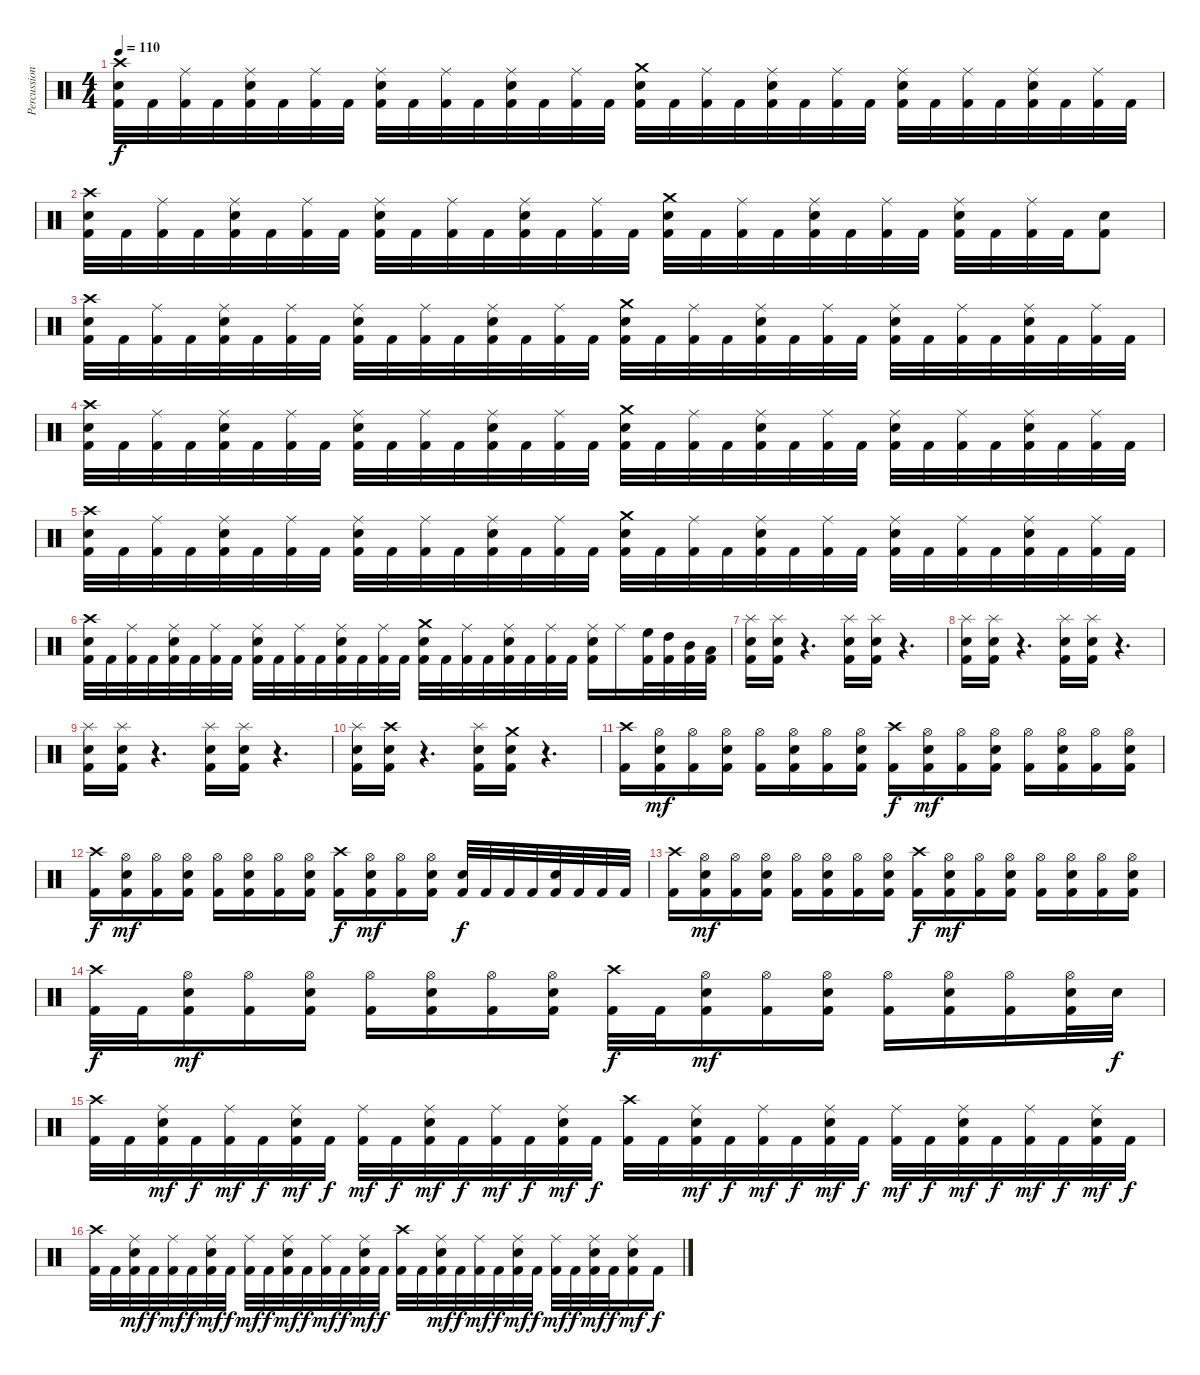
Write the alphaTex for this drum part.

\track ("Percussion" "Percussion") {instrument percussion}
\staff {score}
\articulation defaults
\ts (4 4)
\tempo 110
\clef neutral
\ks c
("Crash high (hit)" "Snare (hit) 2" "Kick (hit) 2").32{dy f} "Kick (hit) 2".32 ("Ride (middle)" "Kick (hit) 2").32 "Kick (hit) 2".32 ("Ride (middle)" "Snare (hit) 2" "Kick (hit) 2").32 "Kick (hit) 2".32 ("Ride (middle)" "Kick (hit) 2").32 "Kick (hit) 2".32 ("Ride (middle)" "Snare (hit) 2" "Kick (hit) 2").32 "Kick (hit) 2".32 ("Ride (middle)" "Kick (hit) 2").32 "Kick (hit) 2".32 ("Ride (middle)" "Snare (hit) 2" "Kick (hit) 2").32 "Kick (hit) 2".32 ("Ride (middle)" "Kick (hit) 2").32 "Kick (hit) 2".32 ("Crash medium (hit)" "Snare (hit) 2" "Kick (hit) 2").32 "Kick (hit) 2".32 ("Ride (middle)" "Kick (hit) 2").32 "Kick (hit) 2".32 ("Ride (middle)" "Snare (hit) 2" "Kick (hit) 2").32 "Kick (hit) 2".32 ("Ride (middle)" "Kick (hit) 2").32 "Kick (hit) 2".32 ("Ride (middle)" "Snare (hit) 2" "Kick (hit) 2").32 "Kick (hit) 2".32 ("Ride (middle)" "Kick (hit) 2").32 "Kick (hit) 2".32 ("Ride (middle)" "Snare (hit) 2" "Kick (hit) 2").32 "Kick (hit) 2".32 ("Ride (middle)" "Kick (hit) 2").32 "Kick (hit) 2".32 |
("Crash high (hit)" "Snare (hit) 2" "Kick (hit) 2").32 "Kick (hit) 2".32 ("Ride (middle)" "Kick (hit) 2").32 "Kick (hit) 2".32 ("Ride (middle)" "Snare (hit) 2" "Kick (hit) 2").32 "Kick (hit) 2".32 ("Ride (middle)" "Kick (hit) 2").32 "Kick (hit) 2".32 ("Ride (middle)" "Snare (hit) 2" "Kick (hit) 2").32 "Kick (hit) 2".32 ("Ride (middle)" "Kick (hit) 2").32 "Kick (hit) 2".32 ("Ride (middle)" "Snare (hit) 2" "Kick (hit) 2").32 "Kick (hit) 2".32 ("Ride (middle)" "Kick (hit) 2").32 "Kick (hit) 2".32 ("Crash medium (hit)" "Snare (hit) 2" "Kick (hit) 2").32 "Kick (hit) 2".32 ("Ride (middle)" "Kick (hit) 2").32 "Kick (hit) 2".32 ("Ride (middle)" "Snare (hit) 2" "Kick (hit) 2").32 "Kick (hit) 2".32 ("Ride (middle)" "Kick (hit) 2").32 "Kick (hit) 2".32 ("Ride (middle)" "Snare (hit) 2" "Kick (hit) 2").32 "Kick (hit) 2".32 ("Ride (middle)" "Kick (hit) 2").32 "Kick (hit) 2".32 ("Snare (hit) 2" "Kick (hit) 2").8 |
("Crash high (hit)" "Snare (hit) 2" "Kick (hit) 2").32 "Kick (hit) 2".32 ("Ride (middle)" "Kick (hit) 2").32 "Kick (hit) 2".32 ("Ride (middle)" "Snare (hit) 2" "Kick (hit) 2").32 "Kick (hit) 2".32 ("Ride (middle)" "Kick (hit) 2").32 "Kick (hit) 2".32 ("Ride (middle)" "Snare (hit) 2" "Kick (hit) 2").32 "Kick (hit) 2".32 ("Ride (middle)" "Kick (hit) 2").32 "Kick (hit) 2".32 ("Ride (middle)" "Snare (hit) 2" "Kick (hit) 2").32 "Kick (hit) 2".32 ("Ride (middle)" "Kick (hit) 2").32 "Kick (hit) 2".32 ("Crash medium (hit)" "Snare (hit) 2" "Kick (hit) 2").32 "Kick (hit) 2".32 ("Ride (middle)" "Kick (hit) 2").32 "Kick (hit) 2".32 ("Ride (middle)" "Snare (hit) 2" "Kick (hit) 2").32 "Kick (hit) 2".32 ("Ride (middle)" "Kick (hit) 2").32 "Kick (hit) 2".32 ("Ride (middle)" "Snare (hit) 2" "Kick (hit) 2").32 "Kick (hit) 2".32 ("Ride (middle)" "Kick (hit) 2").32 "Kick (hit) 2".32 ("Ride (middle)" "Snare (hit) 2" "Kick (hit) 2").32 "Kick (hit) 2".32 ("Ride (middle)" "Kick (hit) 2").32 "Kick (hit) 2".32 |
("Crash high (hit)" "Snare (hit) 2" "Kick (hit) 2").32 "Kick (hit) 2".32 ("Ride (middle)" "Kick (hit) 2").32 "Kick (hit) 2".32 ("Ride (middle)" "Snare (hit) 2" "Kick (hit) 2").32 "Kick (hit) 2".32 ("Ride (middle)" "Kick (hit) 2").32 "Kick (hit) 2".32 ("Ride (middle)" "Snare (hit) 2" "Kick (hit) 2").32 "Kick (hit) 2".32 ("Ride (middle)" "Kick (hit) 2").32 "Kick (hit) 2".32 ("Ride (middle)" "Snare (hit) 2" "Kick (hit) 2").32 "Kick (hit) 2".32 ("Ride (middle)" "Kick (hit) 2").32 "Kick (hit) 2".32 ("Crash medium (hit)" "Snare (hit) 2" "Kick (hit) 2").32 "Kick (hit) 2".32 ("Ride (middle)" "Kick (hit) 2").32 "Kick (hit) 2".32 ("Ride (middle)" "Snare (hit) 2" "Kick (hit) 2").32 "Kick (hit) 2".32 ("Ride (middle)" "Kick (hit) 2").32 "Kick (hit) 2".32 ("Ride (middle)" "Snare (hit) 2" "Kick (hit) 2").32 "Kick (hit) 2".32 ("Ride (middle)" "Kick (hit) 2").32 "Kick (hit) 2".32 ("Ride (middle)" "Snare (hit) 2" "Kick (hit) 2").32 "Kick (hit) 2".32 ("Ride (middle)" "Kick (hit) 2").32 "Kick (hit) 2".32 |
("Crash high (hit)" "Snare (hit) 2" "Kick (hit) 2").32 "Kick (hit) 2".32 ("Ride (middle)" "Kick (hit) 2").32 "Kick (hit) 2".32 ("Ride (middle)" "Snare (hit) 2" "Kick (hit) 2").32 "Kick (hit) 2".32 ("Ride (middle)" "Kick (hit) 2").32 "Kick (hit) 2".32 ("Ride (middle)" "Snare (hit) 2" "Kick (hit) 2").32 "Kick (hit) 2".32 ("Ride (middle)" "Kick (hit) 2").32 "Kick (hit) 2".32 ("Ride (middle)" "Snare (hit) 2" "Kick (hit) 2").32 "Kick (hit) 2".32 ("Ride (middle)" "Kick (hit) 2").32 "Kick (hit) 2".32 ("Crash medium (hit)" "Snare (hit) 2" "Kick (hit) 2").32 "Kick (hit) 2".32 ("Ride (middle)" "Kick (hit) 2").32 "Kick (hit) 2".32 ("Ride (middle)" "Snare (hit) 2" "Kick (hit) 2").32 "Kick (hit) 2".32 ("Ride (middle)" "Kick (hit) 2").32 "Kick (hit) 2".32 ("Ride (middle)" "Snare (hit) 2" "Kick (hit) 2").32 "Kick (hit) 2".32 ("Ride (middle)" "Kick (hit) 2").32 "Kick (hit) 2".32 ("Ride (middle)" "Snare (hit) 2" "Kick (hit) 2").32 "Kick (hit) 2".32 ("Ride (middle)" "Kick (hit) 2").32 "Kick (hit) 2".32 |
("Crash high (hit)" "Snare (hit) 2" "Kick (hit) 2").32 "Kick (hit) 2".32 ("Ride (middle)" "Kick (hit) 2").32 "Kick (hit) 2".32 ("Ride (middle)" "Snare (hit) 2" "Kick (hit) 2").32 "Kick (hit) 2".32 ("Ride (middle)" "Kick (hit) 2").32 "Kick (hit) 2".32 ("Ride (middle)" "Snare (hit) 2" "Kick (hit) 2").32 "Kick (hit) 2".32 ("Ride (middle)" "Kick (hit) 2").32 "Kick (hit) 2".32 ("Ride (middle)" "Snare (hit) 2" "Kick (hit) 2").32 "Kick (hit) 2".32 ("Ride (middle)" "Kick (hit) 2").32 "Kick (hit) 2".32 ("Crash medium (hit)" "Snare (hit) 2" "Kick (hit) 2").32 "Kick (hit) 2".32 ("Ride (middle)" "Kick (hit) 2").32 "Kick (hit) 2".32 ("Ride (middle)" "Snare (hit) 2" "Kick (hit) 2").32 "Kick (hit) 2".32 ("Ride (middle)" "Kick (hit) 2").32 "Kick (hit) 2".32 ("Ride (middle)" "Snare (hit) 2" "Kick (hit) 2").16 "Ride (middle)".16 ("High Floor Tom (hit)" "Kick (hit) 2").32 ("High Tom (hit)" "Kick (hit) 2").32 ("Mid Tom (hit)" "Kick (hit) 2").32 ("Low Tom (hit)" "Kick (hit) 2").32 |
\section ("" "")
("Splash (hit)" "Snare (hit) 2" "Kick (hit) 2").16 ("Splash (hit)" "Snare (hit) 2" "Kick (hit) 2").16 r.4{d} ("Splash (hit)" "Snare (hit) 2" "Kick (hit) 2").16 ("Splash (hit)" "Snare (hit) 2" "Kick (hit) 2").16 r.4{d} |
("Splash (hit)" "Snare (hit) 2" "Kick (hit) 2").16 ("Splash (hit)" "Snare (hit) 2" "Kick (hit) 2").16 r.4{d} ("Splash (hit)" "Snare (hit) 2" "Kick (hit) 2").16 ("Splash (hit)" "Snare (hit) 2" "Kick (hit) 2").16 r.4{d} |
("Splash (hit)" "Snare (hit) 2" "Kick (hit) 2").16 ("Splash (hit)" "Snare (hit) 2" "Kick (hit) 2").16 r.4{d} ("Splash (hit)" "Snare (hit) 2" "Kick (hit) 2").16 ("Splash (hit)" "Snare (hit) 2" "Kick (hit) 2").16 r.4{d} |
("Splash (hit)" "Snare (hit) 2" "Kick (hit) 2").16 ("Crash high (hit)" "Snare (hit) 2" "Kick (hit) 2").16 r.4{d} ("Splash (hit)" "Snare (hit) 2" "Kick (hit) 2").16 ("Crash medium (hit)" "Snare (hit) 2" "Kick (hit) 2").16 r.4{d} |
\section ("" "")
("Crash high (hit)" "Kick (hit) 2").16 ("Hi-Hat (open)" "Snare (hit) 2" "Kick (hit) 2").16{dy mf} ("Hi-Hat (open)" "Kick (hit) 2").16 ("Hi-Hat (open)" "Snare (hit) 2" "Kick (hit) 2").16 ("Hi-Hat (open)" "Kick (hit) 2").16 ("Hi-Hat (open)" "Snare (hit) 2" "Kick (hit) 2").16 ("Hi-Hat (open)" "Kick (hit) 2").16 ("Hi-Hat (open)" "Snare (hit) 2" "Kick (hit) 2").16 ("Crash high (hit)" "Kick (hit) 2").16{dy f} ("Hi-Hat (open)" "Snare (hit) 2" "Kick (hit) 2").16{dy mf} ("Hi-Hat (open)" "Kick (hit) 2").16 ("Hi-Hat (open)" "Snare (hit) 2" "Kick (hit) 2").16 ("Hi-Hat (open)" "Kick (hit) 2").16 ("Hi-Hat (open)" "Snare (hit) 2" "Kick (hit) 2").16 ("Hi-Hat (open)" "Kick (hit) 2").16 ("Hi-Hat (open)" "Snare (hit) 2" "Kick (hit) 2").16 |
("Crash high (hit)" "Kick (hit) 2").16{dy f} ("Hi-Hat (open)" "Snare (hit) 2" "Kick (hit) 2").16{dy mf} ("Hi-Hat (open)" "Kick (hit) 2").16 ("Hi-Hat (open)" "Snare (hit) 2" "Kick (hit) 2").16 ("Hi-Hat (open)" "Kick (hit) 2").16 ("Hi-Hat (open)" "Snare (hit) 2" "Kick (hit) 2").16 ("Hi-Hat (open)" "Kick (hit) 2").16 ("Hi-Hat (open)" "Snare (hit) 2" "Kick (hit) 2").16 ("Crash high (hit)" "Kick (hit) 2").16{dy f} ("Hi-Hat (open)" "Snare (hit) 2" "Kick (hit) 2").16{dy mf} ("Hi-Hat (open)" "Kick (hit) 2").16 ("Hi-Hat (open)" "Snare (hit) 2" "Kick (hit) 2").16 ("Snare (hit) 2" "Kick (hit) 2").32{dy f} "Kick (hit) 2".32 "Kick (hit) 2".32 "Kick (hit) 2".32 ("Snare (hit) 2" "Kick (hit) 2").32 "Kick (hit) 2".32 "Kick (hit) 2".32 "Kick (hit) 2".32 |
("Crash high (hit)" "Kick (hit) 2").16 ("Hi-Hat (open)" "Snare (hit) 2" "Kick (hit) 2").16{dy mf} ("Hi-Hat (open)" "Kick (hit) 2").16 ("Hi-Hat (open)" "Snare (hit) 2" "Kick (hit) 2").16 ("Hi-Hat (open)" "Kick (hit) 2").16 ("Hi-Hat (open)" "Snare (hit) 2" "Kick (hit) 2").16 ("Hi-Hat (open)" "Kick (hit) 2").16 ("Hi-Hat (open)" "Snare (hit) 2" "Kick (hit) 2").16 ("Crash high (hit)" "Kick (hit) 2").16{dy f} ("Hi-Hat (open)" "Snare (hit) 2" "Kick (hit) 2").16{dy mf} ("Hi-Hat (open)" "Kick (hit) 2").16 ("Hi-Hat (open)" "Snare (hit) 2" "Kick (hit) 2").16 ("Hi-Hat (open)" "Kick (hit) 2").16 ("Hi-Hat (open)" "Snare (hit) 2" "Kick (hit) 2").16 ("Hi-Hat (open)" "Kick (hit) 2").16 ("Hi-Hat (open)" "Snare (hit) 2" "Kick (hit) 2").16 |
("Crash high (hit)" "Kick (hit) 2").32{dy f} "Kick (hit) 2".32 ("Hi-Hat (open)" "Snare (hit) 2" "Kick (hit) 2").16{dy mf} ("Hi-Hat (open)" "Kick (hit) 2").16 ("Hi-Hat (open)" "Snare (hit) 2" "Kick (hit) 2").16 ("Hi-Hat (open)" "Kick (hit) 2").16 ("Hi-Hat (open)" "Snare (hit) 2" "Kick (hit) 2").16 ("Hi-Hat (open)" "Kick (hit) 2").16 ("Hi-Hat (open)" "Snare (hit) 2" "Kick (hit) 2").16 ("Crash high (hit)" "Kick (hit) 2").32{dy f} "Kick (hit) 2".32 ("Hi-Hat (open)" "Snare (hit) 2" "Kick (hit) 2").16{dy mf} ("Hi-Hat (open)" "Kick (hit) 2").16 ("Hi-Hat (open)" "Snare (hit) 2" "Kick (hit) 2").16 ("Hi-Hat (open)" "Kick (hit) 2").16 ("Hi-Hat (open)" "Snare (hit) 2" "Kick (hit) 2").16 ("Hi-Hat (open)" "Kick (hit) 2").16 ("Hi-Hat (open)" "Snare (hit) 2" "Kick (hit) 2").32 "Snare (hit) 2".32{dy f} |
("Crash high (hit)" "Kick (hit) 2").32 "Kick (hit) 2".32 ("Ride (middle)" "Snare (hit) 2" "Kick (hit) 2").32{dy mf} "Kick (hit) 2".32{dy f} ("Ride (middle)" "Kick (hit) 2").32{dy mf} "Kick (hit) 2".32{dy f} ("Ride (middle)" "Snare (hit) 2" "Kick (hit) 2").32{dy mf} "Kick (hit) 2".32{dy f} ("Ride (middle)" "Kick (hit) 2").32{dy mf} "Kick (hit) 2".32{dy f} ("Ride (middle)" "Snare (hit) 2" "Kick (hit) 2").32{dy mf} "Kick (hit) 2".32{dy f} ("Ride (middle)" "Kick (hit) 2").32{dy mf} "Kick (hit) 2".32{dy f} ("Ride (middle)" "Snare (hit) 2" "Kick (hit) 2").32{dy mf} "Kick (hit) 2".32{dy f} ("Crash high (hit)" "Kick (hit) 2").32 "Kick (hit) 2".32 ("Ride (middle)" "Snare (hit) 2" "Kick (hit) 2").32{dy mf} "Kick (hit) 2".32{dy f} ("Ride (middle)" "Kick (hit) 2").32{dy mf} "Kick (hit) 2".32{dy f} ("Ride (middle)" "Snare (hit) 2" "Kick (hit) 2").32{dy mf} "Kick (hit) 2".32{dy f} ("Ride (middle)" "Kick (hit) 2").32{dy mf} "Kick (hit) 2".32{dy f} ("Ride (middle)" "Snare (hit) 2" "Kick (hit) 2").32{dy mf} "Kick (hit) 2".32{dy f} ("Ride (middle)" "Kick (hit) 2").32{dy mf} "Kick (hit) 2".32{dy f} ("Ride (middle)" "Snare (hit) 2" "Kick (hit) 2").32{dy mf} "Kick (hit) 2".32{dy f} |
("Crash high (hit)" "Kick (hit) 2").32 "Kick (hit) 2".32 ("Ride (middle)" "Snare (hit) 2" "Kick (hit) 2").32{dy mf} "Kick (hit) 2".32{dy f} ("Ride (middle)" "Kick (hit) 2").32{dy mf} "Kick (hit) 2".32{dy f} ("Ride (middle)" "Snare (hit) 2" "Kick (hit) 2").32{dy mf} "Kick (hit) 2".32{dy f} ("Ride (middle)" "Kick (hit) 2").32{dy mf} "Kick (hit) 2".32{dy f} ("Ride (middle)" "Snare (hit) 2" "Kick (hit) 2").32{dy mf} "Kick (hit) 2".32{dy f} ("Ride (middle)" "Kick (hit) 2").32{dy mf} "Kick (hit) 2".32{dy f} ("Ride (middle)" "Snare (hit) 2" "Kick (hit) 2").32{dy mf} "Kick (hit) 2".32{dy f} ("Crash high (hit)" "Kick (hit) 2").32 "Kick (hit) 2".32 ("Ride (middle)" "Snare (hit) 2" "Kick (hit) 2").32{dy mf} "Kick (hit) 2".32{dy f} ("Ride (middle)" "Kick (hit) 2").32{dy mf} "Kick (hit) 2".32{dy f} ("Ride (middle)" "Snare (hit) 2" "Kick (hit) 2").32{dy mf} "Kick (hit) 2".32{dy f} ("Ride (middle)" "Kick (hit) 2").32{dy mf} "Kick (hit) 2".32{dy f} ("Ride (middle)" "Snare (hit) 2" "Kick (hit) 2").32{dy mf} "Kick (hit) 2".32{dy f} ("Ride (middle)" "Snare (hit) 2" "Kick (hit) 2").16{dy mf} "Kick (hit) 2".16{dy f}
